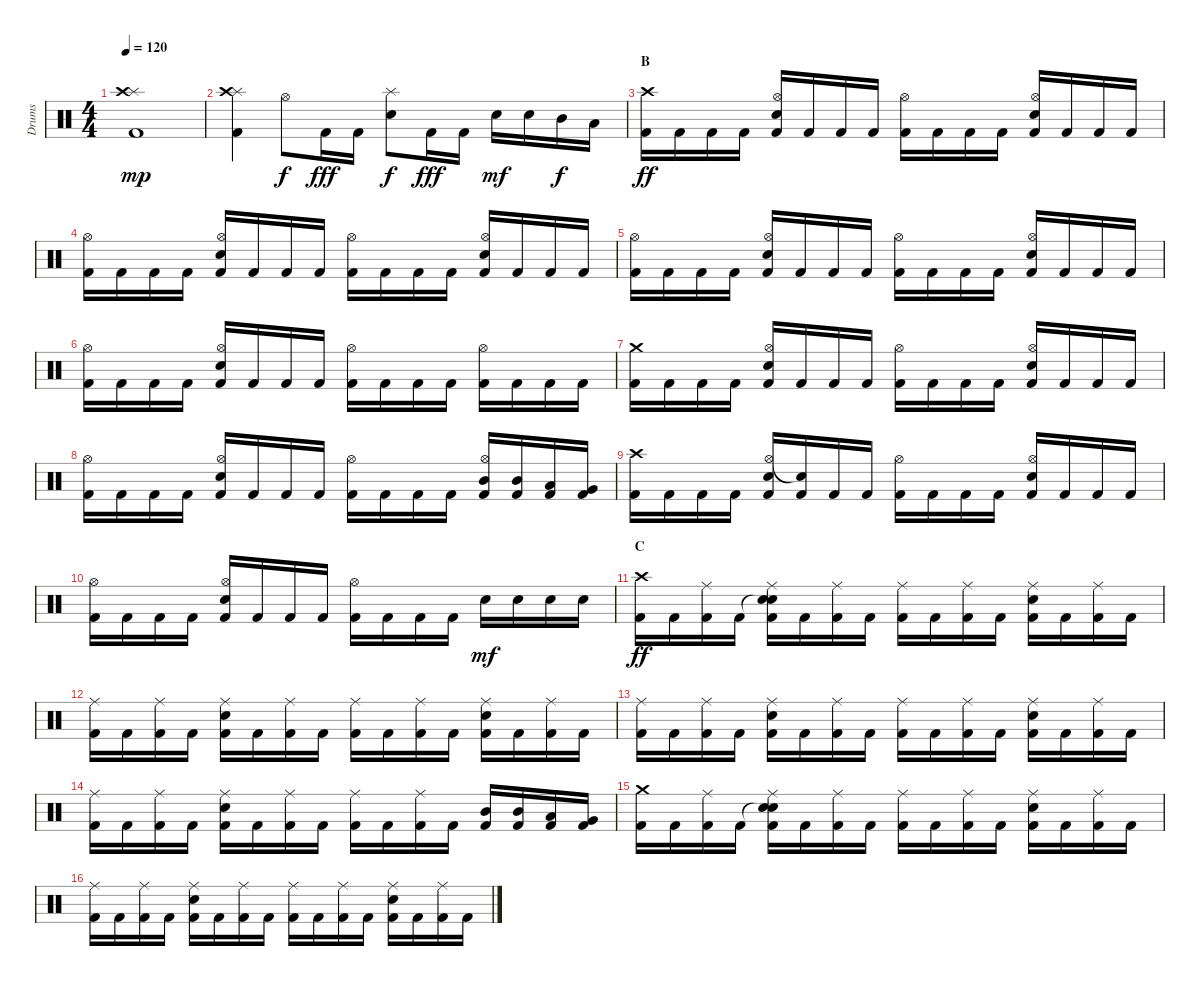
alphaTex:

\track ("Drums" "Drums") {instrument percussion}
\staff {score}
\articulation defaults
\ts (4 4)
\tempo 120
\clef neutral
\ks c
("Kick (hit) 2" "Splash (hit)" "Crash high (hit)").1{dy mp} |
("Kick (hit) 2" "Splash (hit)" "Crash high (hit)").4 "Hi-Hat (open)".8{dy f} "Kick (hit) 2".16{dy fff} "Kick (hit) 2".16 ("Splash (hit)" "Electric Snare (hit)").8{dy f} "Kick (hit) 2".16{dy fff} "Kick (hit) 2".16 "Electric Snare (hit)".16{dy mf} "Electric Snare (hit)".16 "Mid Tom (hit)".16{dy f} "Low Tom (hit)".16 |
\section ("" "B")
("Crash high (hit)" "Kick (hit) 2").16{dy ff} "Kick (hit) 2".16 "Kick (hit) 2".16 "Kick (hit) 2".16 ("Hi-Hat (open)" "Electric Snare (hit)" "Kick (hit) 2").16 "Kick (hit) 2".16 "Kick (hit) 2".16 "Kick (hit) 2".16 ("Hi-Hat (open)" "Kick (hit) 2").16 "Kick (hit) 2".16 "Kick (hit) 2".16 "Kick (hit) 2".16 ("Hi-Hat (open)" "Electric Snare (hit)" "Kick (hit) 2").16 "Kick (hit) 2".16 "Kick (hit) 2".16 "Kick (hit) 2".16 |
("Hi-Hat (open)" "Kick (hit) 2").16 "Kick (hit) 2".16 "Kick (hit) 2".16 "Kick (hit) 2".16 ("Hi-Hat (open)" "Electric Snare (hit)" "Kick (hit) 2").16 "Kick (hit) 2".16 "Kick (hit) 2".16 "Kick (hit) 2".16 ("Hi-Hat (open)" "Kick (hit) 2").16 "Kick (hit) 2".16 "Kick (hit) 2".16 "Kick (hit) 2".16 ("Hi-Hat (open)" "Electric Snare (hit)" "Kick (hit) 2").16 "Kick (hit) 2".16 "Kick (hit) 2".16 "Kick (hit) 2".16 |
("Hi-Hat (open)" "Kick (hit) 2").16 "Kick (hit) 2".16 "Kick (hit) 2".16 "Kick (hit) 2".16 ("Hi-Hat (open)" "Electric Snare (hit)" "Kick (hit) 2").16 "Kick (hit) 2".16 "Kick (hit) 2".16 "Kick (hit) 2".16 ("Hi-Hat (open)" "Kick (hit) 2").16 "Kick (hit) 2".16 "Kick (hit) 2".16 "Kick (hit) 2".16 ("Hi-Hat (open)" "Electric Snare (hit)" "Kick (hit) 2").16 "Kick (hit) 2".16 "Kick (hit) 2".16 "Kick (hit) 2".16 |
("Hi-Hat (open)" "Kick (hit) 2").16 "Kick (hit) 2".16 "Kick (hit) 2".16 "Kick (hit) 2".16 ("Hi-Hat (open)" "Electric Snare (hit)" "Kick (hit) 2").16 "Kick (hit) 2".16 "Kick (hit) 2".16 "Kick (hit) 2".16 ("Hi-Hat (open)" "Kick (hit) 2").16 "Kick (hit) 2".16 "Kick (hit) 2".16 "Kick (hit) 2".16 ("Hi-Hat (open)" "Kick (hit) 2").16 "Kick (hit) 2".16 "Kick (hit) 2".16 "Kick (hit) 2".16 |
("Crash medium (hit)" "Kick (hit) 2").16 "Kick (hit) 2".16 "Kick (hit) 2".16 "Kick (hit) 2".16 ("Hi-Hat (open)" "Electric Snare (hit)" "Kick (hit) 2").16 "Kick (hit) 2".16 "Kick (hit) 2".16 "Kick (hit) 2".16 ("Hi-Hat (open)" "Kick (hit) 2").16 "Kick (hit) 2".16 "Kick (hit) 2".16 "Kick (hit) 2".16 ("Hi-Hat (open)" "Electric Snare (hit)" "Kick (hit) 2").16 "Kick (hit) 2".16 "Kick (hit) 2".16 "Kick (hit) 2".16 |
("Hi-Hat (open)" "Kick (hit) 2").16 "Kick (hit) 2".16 "Kick (hit) 2".16 "Kick (hit) 2".16 ("Hi-Hat (open)" "Electric Snare (hit)" "Kick (hit) 2").16 "Kick (hit) 2".16 "Kick (hit) 2".16 "Kick (hit) 2".16 ("Hi-Hat (open)" "Kick (hit) 2").16 "Kick (hit) 2".16 "Kick (hit) 2".16 "Kick (hit) 2".16 ("Hi-Hat (open)" "Mid Tom (hit)" "Kick (hit) 2").16 ("Mid Tom (hit)" "Kick (hit) 2").16 ("Low Tom (hit)" "Kick (hit) 2").16 ("Very Low Tom (hit)" "Kick (hit) 2").16 |
("Crash high (hit)" "Kick (hit) 2").16 "Kick (hit) 2".16 "Kick (hit) 2".16 "Kick (hit) 2".16 ("Hi-Hat (open)" "Electric Snare (hit)" "Kick (hit) 2").16 ("Snare (hit)"{t} "Kick (hit) 2").16 "Kick (hit) 2".16 "Kick (hit) 2".16 ("Hi-Hat (open)" "Kick (hit) 2").16 "Kick (hit) 2".16 "Kick (hit) 2".16 "Kick (hit) 2".16 ("Hi-Hat (open)" "Electric Snare (hit)" "Kick (hit) 2").16 "Kick (hit) 2".16 "Kick (hit) 2".16 "Kick (hit) 2".16 |
("Hi-Hat (open)" "Kick (hit) 2").16 "Kick (hit) 2".16 "Kick (hit) 2".16 "Kick (hit) 2".16 ("Hi-Hat (open)" "Electric Snare (hit)" "Kick (hit) 2").16 "Kick (hit) 2".16 "Kick (hit) 2".16 "Kick (hit) 2".16 ("Hi-Hat (open)" "Kick (hit) 2").16 "Kick (hit) 2".16 "Kick (hit) 2".16 "Kick (hit) 2".16 "Electric Snare (hit)".16{dy mf} "Electric Snare (hit)".16 "Electric Snare (hit)".16 "Electric Snare (hit)".16 |
\section ("" "C")
("Crash high (hit)" "Kick (hit) 2").16{dy ff} "Kick (hit) 2".16 ("Ride (middle)" "Kick (hit) 2").16 "Kick (hit) 2".16 ("Snare (hit)"{t} "Ride (middle)" "Electric Snare (hit)" "Kick (hit) 2").16 "Kick (hit) 2".16 ("Ride (middle)" "Kick (hit) 2").16 "Kick (hit) 2".16 ("Ride (middle)" "Kick (hit) 2").16 "Kick (hit) 2".16 ("Ride (middle)" "Kick (hit) 2").16 "Kick (hit) 2".16 ("Ride (middle)" "Electric Snare (hit)" "Kick (hit) 2").16 "Kick (hit) 2".16 ("Ride (middle)" "Kick (hit) 2").16 "Kick (hit) 2".16 |
("Ride (middle)" "Kick (hit) 2").16 "Kick (hit) 2".16 ("Ride (middle)" "Kick (hit) 2").16 "Kick (hit) 2".16 ("Ride (middle)" "Electric Snare (hit)" "Kick (hit) 2").16 "Kick (hit) 2".16 ("Ride (middle)" "Kick (hit) 2").16 "Kick (hit) 2".16 ("Ride (middle)" "Kick (hit) 2").16 "Kick (hit) 2".16 ("Ride (middle)" "Kick (hit) 2").16 "Kick (hit) 2".16 ("Ride (middle)" "Electric Snare (hit)" "Kick (hit) 2").16 "Kick (hit) 2".16 ("Ride (middle)" "Kick (hit) 2").16 "Kick (hit) 2".16 |
("Ride (middle)" "Kick (hit) 2").16 "Kick (hit) 2".16 ("Ride (middle)" "Kick (hit) 2").16 "Kick (hit) 2".16 ("Ride (middle)" "Electric Snare (hit)" "Kick (hit) 2").16 "Kick (hit) 2".16 ("Ride (middle)" "Kick (hit) 2").16 "Kick (hit) 2".16 ("Ride (middle)" "Kick (hit) 2").16 "Kick (hit) 2".16 ("Ride (middle)" "Kick (hit) 2").16 "Kick (hit) 2".16 ("Ride (middle)" "Electric Snare (hit)" "Kick (hit) 2").16 "Kick (hit) 2".16 ("Ride (middle)" "Kick (hit) 2").16 "Kick (hit) 2".16 |
("Ride (middle)" "Kick (hit) 2").16 "Kick (hit) 2".16 ("Ride (middle)" "Kick (hit) 2").16 "Kick (hit) 2".16 ("Ride (middle)" "Electric Snare (hit)" "Kick (hit) 2").16 "Kick (hit) 2".16 ("Ride (middle)" "Kick (hit) 2").16 "Kick (hit) 2".16 ("Ride (middle)" "Kick (hit) 2").16 "Kick (hit) 2".16 ("Ride (middle)" "Kick (hit) 2").16 "Kick (hit) 2".16 ("Mid Tom (hit)" "Kick (hit) 2").16 ("Mid Tom (hit)" "Kick (hit) 2").16 ("Low Tom (hit)" "Kick (hit) 2").16 ("Very Low Tom (hit)" "Kick (hit) 2").16 |
("Crash medium (hit)" "Kick (hit) 2").16 "Kick (hit) 2".16 ("Ride (middle)" "Kick (hit) 2").16 "Kick (hit) 2".16 ("Snare (hit)"{t} "Ride (middle)" "Electric Snare (hit)" "Kick (hit) 2").16 "Kick (hit) 2".16 ("Ride (middle)" "Kick (hit) 2").16 "Kick (hit) 2".16 ("Ride (middle)" "Kick (hit) 2").16 "Kick (hit) 2".16 ("Ride (middle)" "Kick (hit) 2").16 "Kick (hit) 2".16 ("Ride (middle)" "Electric Snare (hit)" "Kick (hit) 2").16 "Kick (hit) 2".16 ("Ride (middle)" "Kick (hit) 2").16 "Kick (hit) 2".16 |
("Ride (middle)" "Kick (hit) 2").16 "Kick (hit) 2".16 ("Ride (middle)" "Kick (hit) 2").16 "Kick (hit) 2".16 ("Ride (middle)" "Electric Snare (hit)" "Kick (hit) 2").16 "Kick (hit) 2".16 ("Ride (middle)" "Kick (hit) 2").16 "Kick (hit) 2".16 ("Ride (middle)" "Kick (hit) 2").16 "Kick (hit) 2".16 ("Ride (middle)" "Kick (hit) 2").16 "Kick (hit) 2".16 ("Ride (middle)" "Electric Snare (hit)" "Kick (hit) 2").16 "Kick (hit) 2".16 ("Ride (middle)" "Kick (hit) 2").16 "Kick (hit) 2".16
